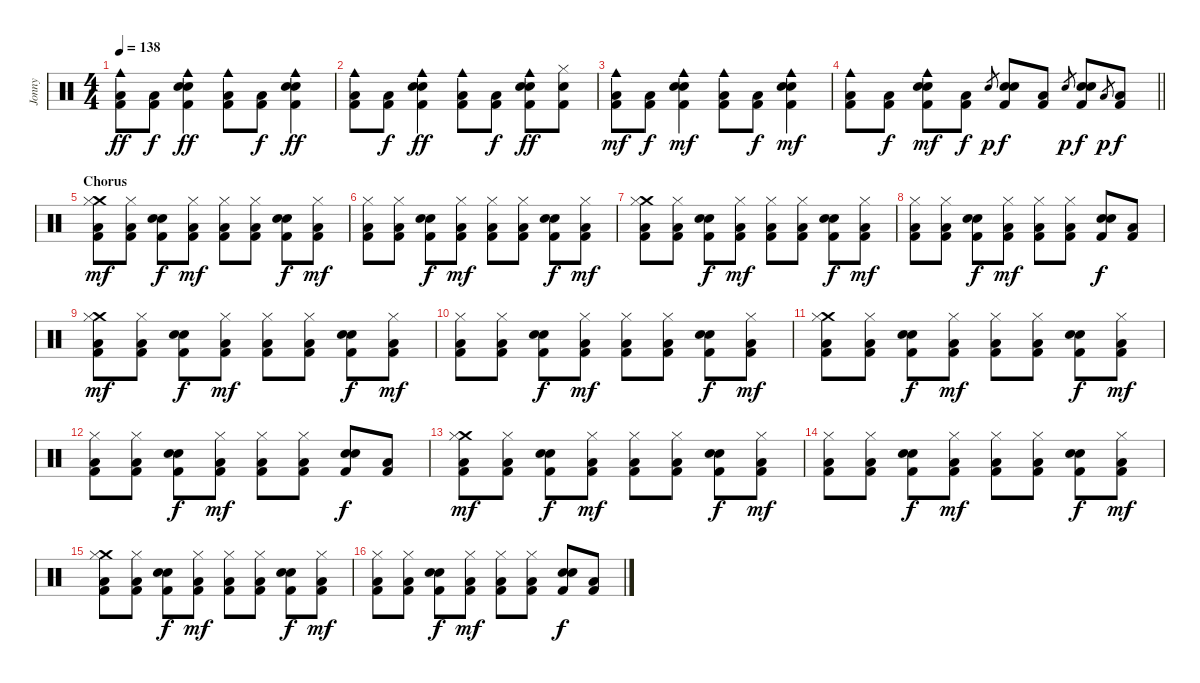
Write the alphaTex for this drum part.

\track ("Jonny" "Jonny") {instrument percussion}
\staff {score}
\articulation defaults
\ts (4 4)
\tempo 138
\clef neutral
\ks c
("Cowbell medium (hit)" "Low Floor Tom (hit)" "Kick (hit) 2").8{dy ff} ("Low Floor Tom (hit)" "Kick (hit) 2").8{dy f} ("Cowbell medium (hit)" "Electric Snare (hit)" "Electric Snare (hit)" "Kick (hit) 2").4{dy ff} ("Cowbell medium (hit)" "Low Floor Tom (hit)" "Kick (hit) 2").8 ("Low Floor Tom (hit)" "Kick (hit) 2").8{dy f} ("Cowbell medium (hit)" "Electric Snare (hit)" "Electric Snare (hit)" "Kick (hit) 2").4{dy ff} |
("Cowbell medium (hit)" "Low Floor Tom (hit)" "Kick (hit) 2").8 ("Low Floor Tom (hit)" "Kick (hit) 2").8{dy f} ("Cowbell medium (hit)" "Electric Snare (hit)" "Electric Snare (hit)" "Kick (hit) 2").4{dy ff} ("Cowbell medium (hit)" "Low Floor Tom (hit)" "Kick (hit) 2").8 ("Low Floor Tom (hit)" "Kick (hit) 2").8{dy f} ("Cowbell medium (hit)" "Electric Snare (hit)" "Electric Snare (hit)" "Kick (hit) 2").8{dy ff} ("Hi-Hat (closed)" "Electric Snare (hit)" "Kick (hit) 2").8 |
("Cowbell medium (hit)" "Low Floor Tom (hit)" "Kick (hit) 2").8{dy mf} ("Low Floor Tom (hit)" "Kick (hit) 2").8{dy f} ("Cowbell medium (hit)" "Electric Snare (hit)" "Electric Snare (hit)" "Kick (hit) 2").4{dy mf} ("Cowbell medium (hit)" "Low Floor Tom (hit)" "Kick (hit) 2").8 ("Low Floor Tom (hit)" "Kick (hit) 2").8{dy f} ("Cowbell medium (hit)" "Electric Snare (hit)" "Electric Snare (hit)" "Kick (hit) 2").4{dy mf} |
\barLineRight lightlight
("Cowbell medium (hit)" "Low Floor Tom (hit)" "Kick (hit) 2").8 ("Low Floor Tom (hit)" "Kick (hit) 2").8{dy f} ("Cowbell medium (hit)" "Electric Snare (hit)" "Electric Snare (hit)" "Kick (hit) 2").8{dy mf} ("Low Floor Tom (hit)" "Kick (hit) 2").8{dy f} "Electric Snare (hit)".8{gr dy p} ("Electric Snare (hit)" "Electric Snare (hit)" "Kick (hit) 2").8{dy f} ("Low Floor Tom (hit)" "Kick (hit) 2").8 "Electric Snare (hit)".8{gr dy p} ("Electric Snare (hit)" "Electric Snare (hit)" "Kick (hit) 2").8{dy f} "Low Floor Tom (hit)".8{gr dy p} ("Low Floor Tom (hit)" "Kick (hit) 2").8{dy f} |
\section ("" "Chorus")
("Crash medium (hit)" "Hi-Hat (closed)" "Low Floor Tom (hit)" "Kick (hit) 2").8{dy mf} ("Hi-Hat (closed)" "Low Floor Tom (hit)" "Kick (hit) 2").8 ("Electric Snare (hit)" "Electric Snare (hit)" "Kick (hit) 2").8{dy f} ("Hi-Hat (closed)" "Low Floor Tom (hit)" "Kick (hit) 2").8{dy mf} ("Hi-Hat (closed)" "Low Floor Tom (hit)" "Kick (hit) 2").8 ("Hi-Hat (closed)" "Low Floor Tom (hit)" "Kick (hit) 2").8 ("Electric Snare (hit)" "Electric Snare (hit)" "Kick (hit) 2").8{dy f} ("Hi-Hat (closed)" "Low Floor Tom (hit)" "Kick (hit) 2").8{dy mf} |
("Hi-Hat (closed)" "Low Floor Tom (hit)" "Kick (hit) 2").8 ("Hi-Hat (closed)" "Low Floor Tom (hit)" "Kick (hit) 2").8 ("Electric Snare (hit)" "Electric Snare (hit)" "Kick (hit) 2").8{dy f} ("Hi-Hat (closed)" "Low Floor Tom (hit)" "Kick (hit) 2").8{dy mf} ("Hi-Hat (closed)" "Low Floor Tom (hit)" "Kick (hit) 2").8 ("Hi-Hat (closed)" "Low Floor Tom (hit)" "Kick (hit) 2").8 ("Electric Snare (hit)" "Electric Snare (hit)" "Kick (hit) 2").8{dy f} ("Hi-Hat (closed)" "Low Floor Tom (hit)" "Kick (hit) 2").8{dy mf} |
("Crash medium (hit)" "Hi-Hat (closed)" "Low Floor Tom (hit)" "Kick (hit) 2").8 ("Hi-Hat (closed)" "Low Floor Tom (hit)" "Kick (hit) 2").8 ("Electric Snare (hit)" "Electric Snare (hit)" "Kick (hit) 2").8{dy f} ("Hi-Hat (closed)" "Low Floor Tom (hit)" "Kick (hit) 2").8{dy mf} ("Hi-Hat (closed)" "Low Floor Tom (hit)" "Kick (hit) 2").8 ("Hi-Hat (closed)" "Low Floor Tom (hit)" "Kick (hit) 2").8 ("Electric Snare (hit)" "Electric Snare (hit)" "Kick (hit) 2").8{dy f} ("Hi-Hat (closed)" "Low Floor Tom (hit)" "Kick (hit) 2").8{dy mf} |
("Hi-Hat (closed)" "Low Floor Tom (hit)" "Kick (hit) 2").8 ("Hi-Hat (closed)" "Low Floor Tom (hit)" "Kick (hit) 2").8 ("Electric Snare (hit)" "Electric Snare (hit)" "Kick (hit) 2").8{dy f} ("Hi-Hat (closed)" "Low Floor Tom (hit)" "Kick (hit) 2").8{dy mf} ("Hi-Hat (closed)" "Low Floor Tom (hit)" "Kick (hit) 2").8 ("Hi-Hat (closed)" "Low Floor Tom (hit)" "Kick (hit) 2").8 ("Electric Snare (hit)" "Electric Snare (hit)" "Kick (hit) 2").8{dy f} ("Low Floor Tom (hit)" "Kick (hit) 2").8 |
("Crash medium (hit)" "Hi-Hat (closed)" "Low Floor Tom (hit)" "Kick (hit) 2").8{dy mf} ("Hi-Hat (closed)" "Low Floor Tom (hit)" "Kick (hit) 2").8 ("Electric Snare (hit)" "Electric Snare (hit)" "Kick (hit) 2").8{dy f} ("Hi-Hat (closed)" "Low Floor Tom (hit)" "Kick (hit) 2").8{dy mf} ("Hi-Hat (closed)" "Low Floor Tom (hit)" "Kick (hit) 2").8 ("Hi-Hat (closed)" "Low Floor Tom (hit)" "Kick (hit) 2").8 ("Electric Snare (hit)" "Electric Snare (hit)" "Kick (hit) 2").8{dy f} ("Hi-Hat (closed)" "Low Floor Tom (hit)" "Kick (hit) 2").8{dy mf} |
("Hi-Hat (closed)" "Low Floor Tom (hit)" "Kick (hit) 2").8 ("Hi-Hat (closed)" "Low Floor Tom (hit)" "Kick (hit) 2").8 ("Electric Snare (hit)" "Electric Snare (hit)" "Kick (hit) 2").8{dy f} ("Hi-Hat (closed)" "Low Floor Tom (hit)" "Kick (hit) 2").8{dy mf} ("Hi-Hat (closed)" "Low Floor Tom (hit)" "Kick (hit) 2").8 ("Hi-Hat (closed)" "Low Floor Tom (hit)" "Kick (hit) 2").8 ("Electric Snare (hit)" "Electric Snare (hit)" "Kick (hit) 2").8{dy f} ("Hi-Hat (closed)" "Low Floor Tom (hit)" "Kick (hit) 2").8{dy mf} |
("Crash medium (hit)" "Hi-Hat (closed)" "Low Floor Tom (hit)" "Kick (hit) 2").8 ("Hi-Hat (closed)" "Low Floor Tom (hit)" "Kick (hit) 2").8 ("Electric Snare (hit)" "Electric Snare (hit)" "Kick (hit) 2").8{dy f} ("Hi-Hat (closed)" "Low Floor Tom (hit)" "Kick (hit) 2").8{dy mf} ("Hi-Hat (closed)" "Low Floor Tom (hit)" "Kick (hit) 2").8 ("Hi-Hat (closed)" "Low Floor Tom (hit)" "Kick (hit) 2").8 ("Electric Snare (hit)" "Electric Snare (hit)" "Kick (hit) 2").8{dy f} ("Hi-Hat (closed)" "Low Floor Tom (hit)" "Kick (hit) 2").8{dy mf} |
("Hi-Hat (closed)" "Low Floor Tom (hit)" "Kick (hit) 2").8 ("Hi-Hat (closed)" "Low Floor Tom (hit)" "Kick (hit) 2").8 ("Electric Snare (hit)" "Electric Snare (hit)" "Kick (hit) 2").8{dy f} ("Hi-Hat (closed)" "Low Floor Tom (hit)" "Kick (hit) 2").8{dy mf} ("Hi-Hat (closed)" "Low Floor Tom (hit)" "Kick (hit) 2").8 ("Hi-Hat (closed)" "Low Floor Tom (hit)" "Kick (hit) 2").8 ("Electric Snare (hit)" "Electric Snare (hit)" "Kick (hit) 2").8{dy f} ("Low Floor Tom (hit)" "Kick (hit) 2").8 |
("Crash medium (hit)" "Hi-Hat (closed)" "Low Floor Tom (hit)" "Kick (hit) 2").8{dy mf} ("Hi-Hat (closed)" "Low Floor Tom (hit)" "Kick (hit) 2").8 ("Electric Snare (hit)" "Electric Snare (hit)" "Kick (hit) 2").8{dy f} ("Hi-Hat (closed)" "Low Floor Tom (hit)" "Kick (hit) 2").8{dy mf} ("Hi-Hat (closed)" "Low Floor Tom (hit)" "Kick (hit) 2").8 ("Hi-Hat (closed)" "Low Floor Tom (hit)" "Kick (hit) 2").8 ("Electric Snare (hit)" "Electric Snare (hit)" "Kick (hit) 2").8{dy f} ("Hi-Hat (closed)" "Low Floor Tom (hit)" "Kick (hit) 2").8{dy mf} |
("Hi-Hat (closed)" "Low Floor Tom (hit)" "Kick (hit) 2").8 ("Hi-Hat (closed)" "Low Floor Tom (hit)" "Kick (hit) 2").8 ("Electric Snare (hit)" "Electric Snare (hit)" "Kick (hit) 2").8{dy f} ("Hi-Hat (closed)" "Low Floor Tom (hit)" "Kick (hit) 2").8{dy mf} ("Hi-Hat (closed)" "Low Floor Tom (hit)" "Kick (hit) 2").8 ("Hi-Hat (closed)" "Low Floor Tom (hit)" "Kick (hit) 2").8 ("Electric Snare (hit)" "Electric Snare (hit)" "Kick (hit) 2").8{dy f} ("Hi-Hat (closed)" "Low Floor Tom (hit)" "Kick (hit) 2").8{dy mf} |
("Crash medium (hit)" "Hi-Hat (closed)" "Low Floor Tom (hit)" "Kick (hit) 2").8 ("Hi-Hat (closed)" "Low Floor Tom (hit)" "Kick (hit) 2").8 ("Electric Snare (hit)" "Electric Snare (hit)" "Kick (hit) 2").8{dy f} ("Hi-Hat (closed)" "Low Floor Tom (hit)" "Kick (hit) 2").8{dy mf} ("Hi-Hat (closed)" "Low Floor Tom (hit)" "Kick (hit) 2").8 ("Hi-Hat (closed)" "Low Floor Tom (hit)" "Kick (hit) 2").8 ("Electric Snare (hit)" "Electric Snare (hit)" "Kick (hit) 2").8{dy f} ("Hi-Hat (closed)" "Low Floor Tom (hit)" "Kick (hit) 2").8{dy mf} |
("Hi-Hat (closed)" "Low Floor Tom (hit)" "Kick (hit) 2").8 ("Hi-Hat (closed)" "Low Floor Tom (hit)" "Kick (hit) 2").8 ("Electric Snare (hit)" "Electric Snare (hit)" "Kick (hit) 2").8{dy f} ("Hi-Hat (closed)" "Low Floor Tom (hit)" "Kick (hit) 2").8{dy mf} ("Hi-Hat (closed)" "Low Floor Tom (hit)" "Kick (hit) 2").8 ("Hi-Hat (closed)" "Low Floor Tom (hit)" "Kick (hit) 2").8 ("Electric Snare (hit)" "Electric Snare (hit)" "Kick (hit) 2").8{dy f} ("Low Floor Tom (hit)" "Kick (hit) 2").8
